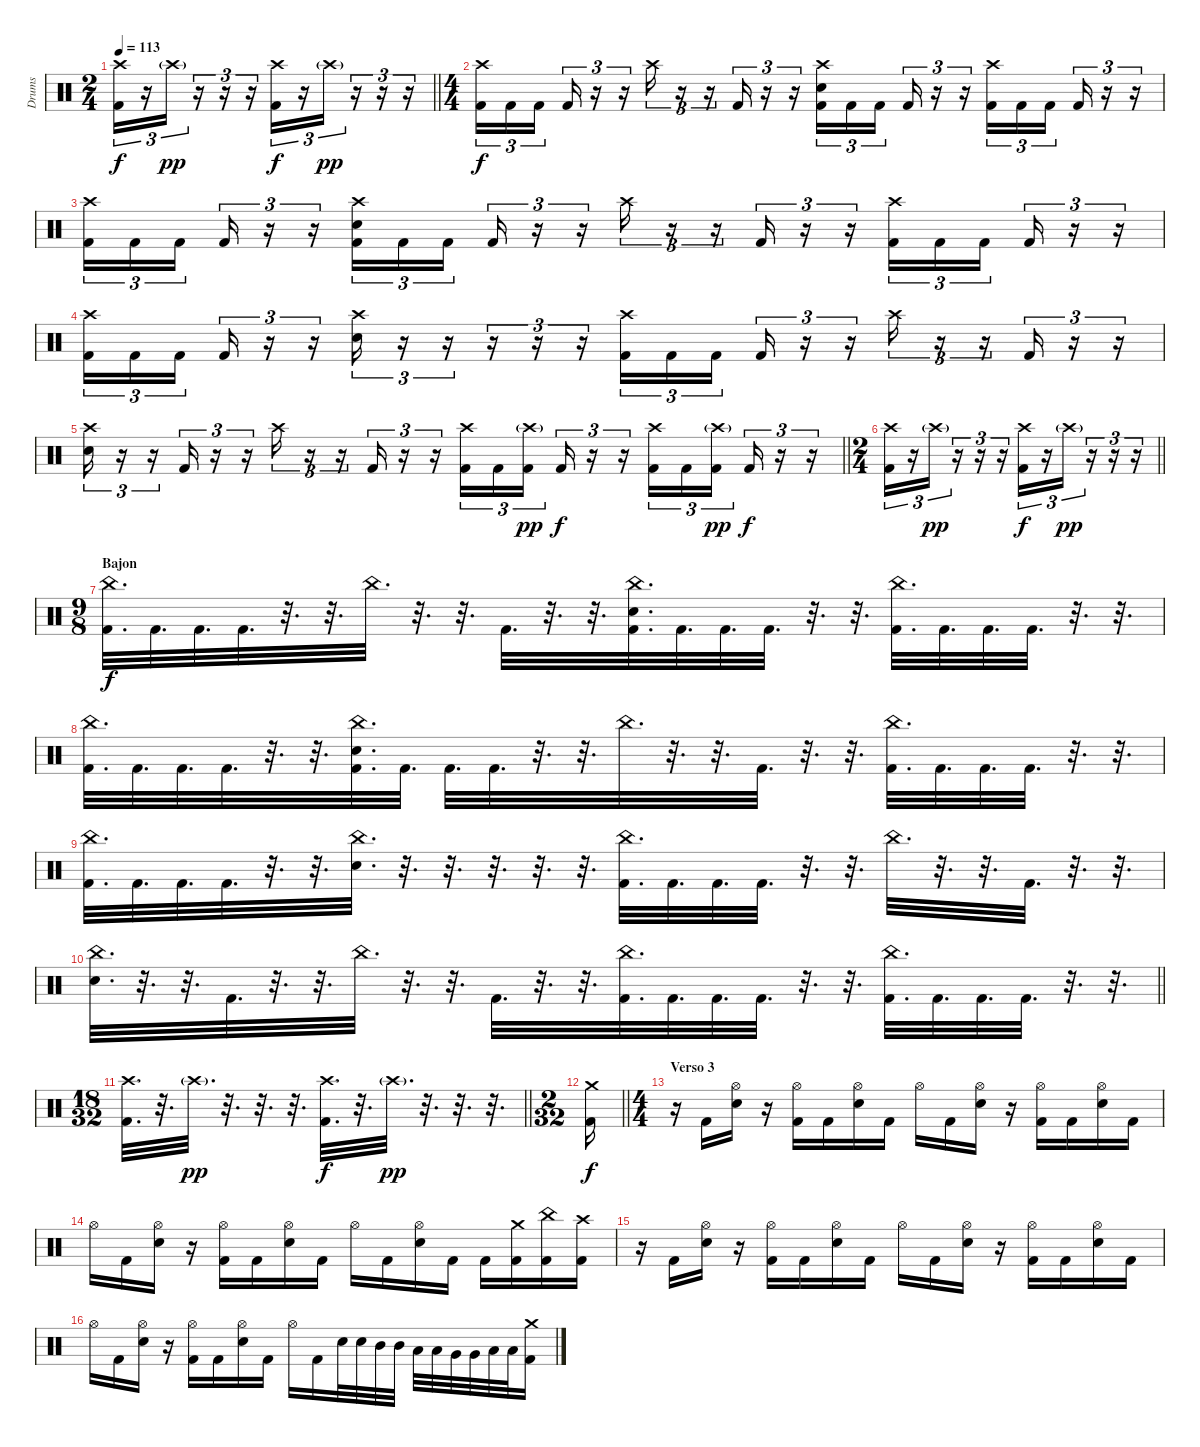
\track ("Drums" "Drums") {instrument percussion}
\staff {score}
\articulation defaults
\ts (2 4)
\tempo 113
\clef neutral
\barLineRight lightlight
\ks c
("Crash high (hit)" "Kick (hit) 2").16{tu (3 2) dy f} r.16{tu (3 2)} "Crash high (hit)"{g}.16{tu (3 2) dy pp} r.16{tu (3 2)} r.16{tu (3 2)} r.16{tu (3 2)} ("Crash high (hit)" "Kick (hit) 2").16{tu (3 2) dy f} r.16{tu (3 2)} "Crash high (hit)"{g}.16{tu (3 2) dy pp} r.16{tu (3 2)} r.16{tu (3 2)} r.16{tu (3 2)} |
\ts (4 4)
\section ("" "")
("Crash high (hit)" "Kick (hit) 2").16{tu (3 2) dy f} "Kick (hit) 2".16{tu (3 2)} "Kick (hit) 2".16{tu (3 2) beam splitsecondary} "Kick (hit) 2".16{tu (3 2)} r.16{tu (3 2)} r.16{tu (3 2)} "Crash high (hit)".16{tu (3 2)} r.16{tu (3 2)} r.16{tu (3 2)} "Kick (hit) 2".16{tu (3 2)} r.16{tu (3 2)} r.16{tu (3 2)} ("Crash high (hit)" "Electric Snare (hit)" "Kick (hit) 2").16{tu (3 2)} "Kick (hit) 2".16{tu (3 2)} "Kick (hit) 2".16{tu (3 2) beam splitsecondary} "Kick (hit) 2".16{tu (3 2)} r.16{tu (3 2)} r.16{tu (3 2)} ("Crash high (hit)" "Kick (hit) 2").16{tu (3 2)} "Kick (hit) 2".16{tu (3 2)} "Kick (hit) 2".16{tu (3 2) beam splitsecondary} "Kick (hit) 2".16{tu (3 2)} r.16{tu (3 2)} r.16{tu (3 2)} |
("Crash high (hit)" "Kick (hit) 2").16{tu (3 2)} "Kick (hit) 2".16{tu (3 2)} "Kick (hit) 2".16{tu (3 2) beam splitsecondary} "Kick (hit) 2".16{tu (3 2)} r.16{tu (3 2)} r.16{tu (3 2)} ("Crash high (hit)" "Electric Snare (hit)" "Kick (hit) 2").16{tu (3 2)} "Kick (hit) 2".16{tu (3 2)} "Kick (hit) 2".16{tu (3 2) beam splitsecondary} "Kick (hit) 2".16{tu (3 2)} r.16{tu (3 2)} r.16{tu (3 2)} "Crash high (hit)".16{tu (3 2)} r.16{tu (3 2)} r.16{tu (3 2)} "Kick (hit) 2".16{tu (3 2)} r.16{tu (3 2)} r.16{tu (3 2)} ("Crash high (hit)" "Kick (hit) 2").16{tu (3 2)} "Kick (hit) 2".16{tu (3 2)} "Kick (hit) 2".16{tu (3 2) beam splitsecondary} "Kick (hit) 2".16{tu (3 2)} r.16{tu (3 2)} r.16{tu (3 2)} |
("Crash high (hit)" "Kick (hit) 2").16{tu (3 2)} "Kick (hit) 2".16{tu (3 2)} "Kick (hit) 2".16{tu (3 2) beam splitsecondary} "Kick (hit) 2".16{tu (3 2)} r.16{tu (3 2)} r.16{tu (3 2)} ("Crash high (hit)" "Electric Snare (hit)").16{tu (3 2)} r.16{tu (3 2)} r.16{tu (3 2)} r.16{tu (3 2)} r.16{tu (3 2)} r.16{tu (3 2)} ("Crash high (hit)" "Kick (hit) 2").16{tu (3 2)} "Kick (hit) 2".16{tu (3 2)} "Kick (hit) 2".16{tu (3 2) beam splitsecondary} "Kick (hit) 2".16{tu (3 2)} r.16{tu (3 2)} r.16{tu (3 2)} "Crash high (hit)".16{tu (3 2)} r.16{tu (3 2)} r.16{tu (3 2)} "Kick (hit) 2".16{tu (3 2)} r.16{tu (3 2)} r.16{tu (3 2)} |
\barLineRight lightlight
("Crash high (hit)" "Electric Snare (hit)").16{tu (3 2)} r.16{tu (3 2)} r.16{tu (3 2)} "Kick (hit) 2".16{tu (3 2)} r.16{tu (3 2)} r.16{tu (3 2)} "Crash high (hit)".16{tu (3 2)} r.16{tu (3 2)} r.16{tu (3 2)} "Kick (hit) 2".16{tu (3 2)} r.16{tu (3 2)} r.16{tu (3 2)} ("Crash high (hit)" "Kick (hit) 2").16{tu (3 2)} "Kick (hit) 2".16{tu (3 2)} ("Crash high (hit)"{g} "Kick (hit) 2").16{tu (3 2) dy pp beam splitsecondary} "Kick (hit) 2".16{tu (3 2) dy f} r.16{tu (3 2)} r.16{tu (3 2)} ("Crash high (hit)" "Kick (hit) 2").16{tu (3 2)} "Kick (hit) 2".16{tu (3 2)} ("Crash high (hit)"{g} "Kick (hit) 2").16{tu (3 2) dy pp beam splitsecondary} "Kick (hit) 2".16{tu (3 2) dy f} r.16{tu (3 2)} r.16{tu (3 2)} |
\ts (2 4)
\barLineRight lightlight
("Crash high (hit)" "Kick (hit) 2").16{tu (3 2)} r.16{tu (3 2)} "Crash high (hit)"{g}.16{tu (3 2) dy pp} r.16{tu (3 2)} r.16{tu (3 2)} r.16{tu (3 2)} ("Crash high (hit)" "Kick (hit) 2").16{tu (3 2) dy f} r.16{tu (3 2)} "Crash high (hit)"{g}.16{tu (3 2) dy pp} r.16{tu (3 2)} r.16{tu (3 2)} r.16{tu (3 2)} |
\ts (9 8)
\section ("" "Bajon")
("China (hit)" "Kick (hit) 2").32{d dy f} "Kick (hit) 2".32{d} "Kick (hit) 2".32{d} "Kick (hit) 2".32{d} r.32{d} r.32{d} "China (hit)".32{d} r.32{d} r.32{d} "Kick (hit) 2".32{d} r.32{d} r.32{d} ("China (hit)" "Electric Snare (hit)" "Kick (hit) 2").32{d} "Kick (hit) 2".32{d} "Kick (hit) 2".32{d} "Kick (hit) 2".32{d} r.32{d} r.32{d} ("China (hit)" "Kick (hit) 2").32{d} "Kick (hit) 2".32{d} "Kick (hit) 2".32{d} "Kick (hit) 2".32{d} r.32{d} r.32{d} |
("China (hit)" "Kick (hit) 2").32{d} "Kick (hit) 2".32{d} "Kick (hit) 2".32{d} "Kick (hit) 2".32{d} r.32{d} r.32{d} ("China (hit)" "Electric Snare (hit)" "Kick (hit) 2").32{d} "Kick (hit) 2".32{d} "Kick (hit) 2".32{d} "Kick (hit) 2".32{d} r.32{d} r.32{d} "China (hit)".32{d} r.32{d} r.32{d} "Kick (hit) 2".32{d} r.32{d} r.32{d} ("China (hit)" "Kick (hit) 2").32{d} "Kick (hit) 2".32{d} "Kick (hit) 2".32{d} "Kick (hit) 2".32{d} r.32{d} r.32{d} |
("China (hit)" "Kick (hit) 2").32{d} "Kick (hit) 2".32{d} "Kick (hit) 2".32{d} "Kick (hit) 2".32{d} r.32{d} r.32{d} ("China (hit)" "Electric Snare (hit)").32{d} r.32{d} r.32{d} r.32{d} r.32{d} r.32{d} ("China (hit)" "Kick (hit) 2").32{d} "Kick (hit) 2".32{d} "Kick (hit) 2".32{d} "Kick (hit) 2".32{d} r.32{d} r.32{d} "China (hit)".32{d} r.32{d} r.32{d} "Kick (hit) 2".32{d} r.32{d} r.32{d} |
\barLineRight lightlight
("China (hit)" "Electric Snare (hit)").32{d} r.32{d} r.32{d} "Kick (hit) 2".32{d} r.32{d} r.32{d} "China (hit)".32{d} r.32{d} r.32{d} "Kick (hit) 2".32{d} r.32{d} r.32{d} ("China (hit)" "Kick (hit) 2").32{d} "Kick (hit) 2".32{d} "Kick (hit) 2".32{d} "Kick (hit) 2".32{d} r.32{d} r.32{d} ("China (hit)" "Kick (hit) 2").32{d} "Kick (hit) 2".32{d} "Kick (hit) 2".32{d} "Kick (hit) 2".32{d} r.32{d} r.32{d} |
\ts (18 32)
\barLineRight lightlight
("Crash high (hit)" "Kick (hit) 2").32{d} r.32{d} "Crash high (hit)"{g}.32{d dy pp} r.32{d} r.32{d} r.32{d} ("Crash high (hit)" "Kick (hit) 2").32{d dy f} r.32{d} "Crash high (hit)"{g}.32{d dy pp} r.32{d} r.32{d} r.32{d} |
\ts (2 32)
\barLineRight lightlight
("Crash medium (hit)" "Kick (hit) 2").16{dy f} |
\ts (4 4)
\section ("" "Verso 3")
r.16 "Kick (hit) 2".16 ("Hi-Hat (open)" "Electric Snare (hit)").16 r.16 ("Hi-Hat (open)" "Kick (hit) 2").16 "Kick (hit) 2".16 ("Hi-Hat (open)" "Electric Snare (hit)").16 "Kick (hit) 2".16 "Hi-Hat (open)".16 "Kick (hit) 2".16 ("Hi-Hat (open)" "Electric Snare (hit)").16 r.16 ("Hi-Hat (open)" "Kick (hit) 2").16 "Kick (hit) 2".16 ("Hi-Hat (open)" "Electric Snare (hit)").16 "Kick (hit) 2".16 |
"Hi-Hat (open)".16 "Kick (hit) 2".16 ("Hi-Hat (open)" "Electric Snare (hit)").16 r.16 ("Hi-Hat (open)" "Kick (hit) 2").16 "Kick (hit) 2".16 ("Hi-Hat (open)" "Electric Snare (hit)").16 "Kick (hit) 2".16 "Hi-Hat (open)".16 "Kick (hit) 2".16 ("Hi-Hat (open)" "Electric Snare (hit)").16 "Kick (hit) 2".16 "Kick (hit) 2".16 ("Crash medium (hit)" "Kick (hit) 2").16 ("China (hit)" "Kick (hit) 2").16 ("Crash high (hit)" "Kick (hit) 2").16 |
r.16 "Kick (hit) 2".16 ("Hi-Hat (open)" "Electric Snare (hit)").16 r.16 ("Hi-Hat (open)" "Kick (hit) 2").16 "Kick (hit) 2".16 ("Hi-Hat (open)" "Electric Snare (hit)").16 "Kick (hit) 2".16 "Hi-Hat (open)".16 "Kick (hit) 2".16 ("Hi-Hat (open)" "Electric Snare (hit)").16 r.16 ("Hi-Hat (open)" "Kick (hit) 2").16 "Kick (hit) 2".16 ("Hi-Hat (open)" "Electric Snare (hit)").16 "Kick (hit) 2".16 |
"Hi-Hat (open)".16 "Kick (hit) 2".16 ("Hi-Hat (open)" "Electric Snare (hit)").16 r.16 ("Hi-Hat (open)" "Kick (hit) 2").16 "Kick (hit) 2".16 ("Hi-Hat (open)" "Electric Snare (hit)").16 "Kick (hit) 2".16 "Hi-Hat (open)".16 "Kick (hit) 2".16 "Electric Snare (hit)".32 "Electric Snare (hit)".32 "Mid Tom (hit)".32 "Mid Tom (hit)".32 "Low Tom (hit)".32 "Low Tom (hit)".32 "Very Low Tom (hit)".32 "Very Low Tom (hit)".32 "Low Floor Tom (hit)".32 "Low Floor Tom (hit)".32 ("Crash medium (hit)" "Kick (hit) 2").16
